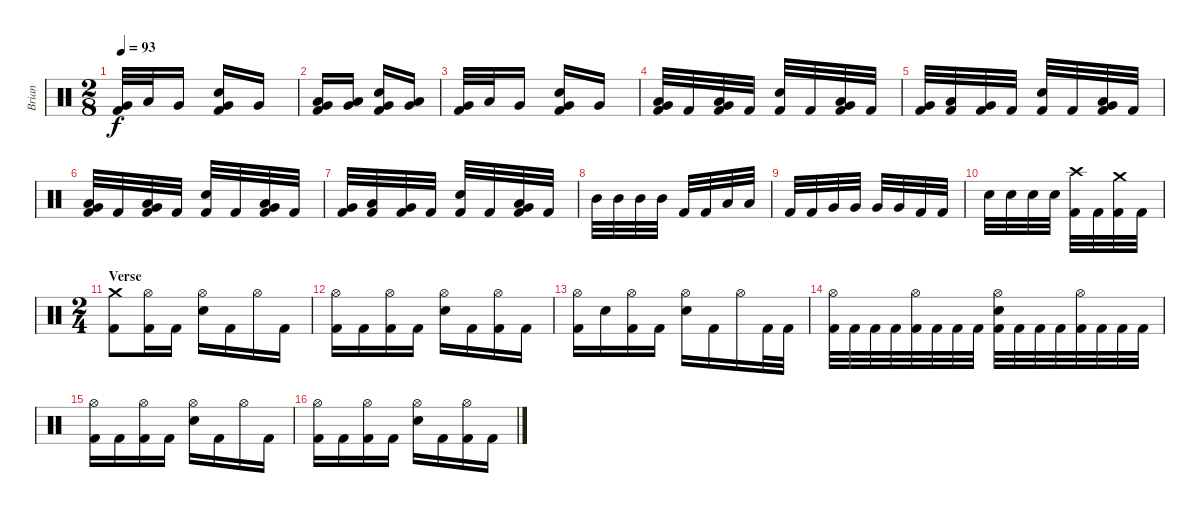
\track ("Brian" "Brian") {instrument percussion}
\staff {score}
\articulation defaults
\ts (2 8)
\tempo 93
\clef neutral
\ks c
("Very Low Tom (hit)" "Kick (hit) 2").32{dy f} "Low Tom (hit)".32 "Very Low Tom (hit)".16 ("Electric Snare (hit)" "Very Low Tom (hit)" "Kick (hit) 2").16 "Very Low Tom (hit)".16 |
("Low Tom (hit)" "Very Low Tom (hit)" "Kick (hit) 2").16 ("Low Tom (hit)" "Very Low Tom (hit)").16 ("Electric Snare (hit)" "Very Low Tom (hit)" "Kick (hit) 2").16 ("Low Tom (hit)" "Very Low Tom (hit)").16 |
("Very Low Tom (hit)" "Kick (hit) 2").32 "Low Tom (hit)".32 "Very Low Tom (hit)".16 ("Electric Snare (hit)" "Very Low Tom (hit)" "Kick (hit) 2").16 "Very Low Tom (hit)".16 |
("Low Tom (hit)" "Very Low Tom (hit)" "Kick (hit) 2").32 "Kick (hit) 2".32 ("Low Tom (hit)" "Very Low Tom (hit)" "Kick (hit) 2").32 "Kick (hit) 2".32 ("Electric Snare (hit)" "Kick (hit) 2").32 "Kick (hit) 2".32 ("Low Tom (hit)" "Very Low Tom (hit)" "Kick (hit) 2").32 "Kick (hit) 2".32 |
("Very Low Tom (hit)" "Kick (hit) 2").32 ("Low Tom (hit)" "Kick (hit) 2").32 ("Very Low Tom (hit)" "Kick (hit) 2").32 "Kick (hit) 2".32 ("Electric Snare (hit)" "Kick (hit) 2").32 "Kick (hit) 2".32 ("Low Tom (hit)" "Very Low Tom (hit)" "Kick (hit) 2").32 "Kick (hit) 2".32 |
("Low Tom (hit)" "Very Low Tom (hit)" "Kick (hit) 2").32 "Kick (hit) 2".32 ("Low Tom (hit)" "Very Low Tom (hit)" "Kick (hit) 2").32 "Kick (hit) 2".32 ("Electric Snare (hit)" "Kick (hit) 2").32 "Kick (hit) 2".32 ("Low Tom (hit)" "Very Low Tom (hit)" "Kick (hit) 2").32 "Kick (hit) 2".32 |
("Very Low Tom (hit)" "Kick (hit) 2").32 ("Low Tom (hit)" "Kick (hit) 2").32 ("Very Low Tom (hit)" "Kick (hit) 2").32 "Kick (hit) 2".32 ("Electric Snare (hit)" "Kick (hit) 2").32 "Kick (hit) 2".32 ("Low Tom (hit)" "Very Low Tom (hit)" "Kick (hit) 2").32 "Kick (hit) 2".32 |
"Mid Tom (hit)".32 "Mid Tom (hit)".32 "Mid Tom (hit)".32 "Mid Tom (hit)".32 "Kick (hit) 2".32 "Kick (hit) 2".32 "Low Tom (hit)".32 "Low Tom (hit)".32 |
"Kick (hit) 2".32 "Kick (hit) 2".32 "Very Low Tom (hit)".32 "Very Low Tom (hit)".32 "Very Low Tom (hit)".32 "Very Low Tom (hit)".32 "Kick (hit) 2".32 "Kick (hit) 2".32 |
"Electric Snare (hit)".32 "Electric Snare (hit)".32 "Electric Snare (hit)".32 "Electric Snare (hit)".32 ("Crash high (hit)" "Kick (hit) 2").32 "Kick (hit) 2".32 ("Crash medium (hit)" "Kick (hit) 2").32 "Kick (hit) 2".32 |
\ts (2 4)
\section ("" "Verse")
("Crash medium (hit)" "Kick (hit) 2").8 ("Hi-Hat (open)" "Kick (hit) 2").16 "Kick (hit) 2".16 ("Hi-Hat (open)" "Electric Snare (hit)").16 "Kick (hit) 2".16 "Hi-Hat (open)".16 "Kick (hit) 2".16 |
("Hi-Hat (open)" "Kick (hit) 2").16 "Kick (hit) 2".16 ("Hi-Hat (open)" "Kick (hit) 2").16 "Kick (hit) 2".16 ("Hi-Hat (open)" "Electric Snare (hit)").16 "Kick (hit) 2".16 ("Hi-Hat (open)" "Kick (hit) 2").16 "Kick (hit) 2".16 |
("Hi-Hat (open)" "Kick (hit) 2").16 "Electric Snare (hit)".16 ("Hi-Hat (open)" "Kick (hit) 2").16 "Kick (hit) 2".16 ("Hi-Hat (open)" "Electric Snare (hit)").16 "Kick (hit) 2".16 "Hi-Hat (open)".16 "Kick (hit) 2".32 "Kick (hit) 2".32 |
("Hi-Hat (open)" "Kick (hit) 2").32 "Kick (hit) 2".32 "Kick (hit) 2".32 "Kick (hit) 2".32 ("Hi-Hat (open)" "Kick (hit) 2").32 "Kick (hit) 2".32 "Kick (hit) 2".32 "Kick (hit) 2".32 ("Hi-Hat (open)" "Electric Snare (hit)" "Kick (hit) 2").32 "Kick (hit) 2".32 "Kick (hit) 2".32 "Kick (hit) 2".32 ("Hi-Hat (open)" "Kick (hit) 2").32 "Kick (hit) 2".32 "Kick (hit) 2".32 "Kick (hit) 2".32 |
("Hi-Hat (open)" "Kick (hit) 2").16 "Kick (hit) 2".16 ("Hi-Hat (open)" "Kick (hit) 2").16 "Kick (hit) 2".16 ("Hi-Hat (open)" "Electric Snare (hit)").16 "Kick (hit) 2".16 "Hi-Hat (open)".16 "Kick (hit) 2".16 |
("Hi-Hat (open)" "Kick (hit) 2").16 "Kick (hit) 2".16 ("Hi-Hat (open)" "Kick (hit) 2").16 "Kick (hit) 2".16 ("Hi-Hat (open)" "Electric Snare (hit)").16 "Kick (hit) 2".16 ("Hi-Hat (open)" "Kick (hit) 2").16 "Kick (hit) 2".16
